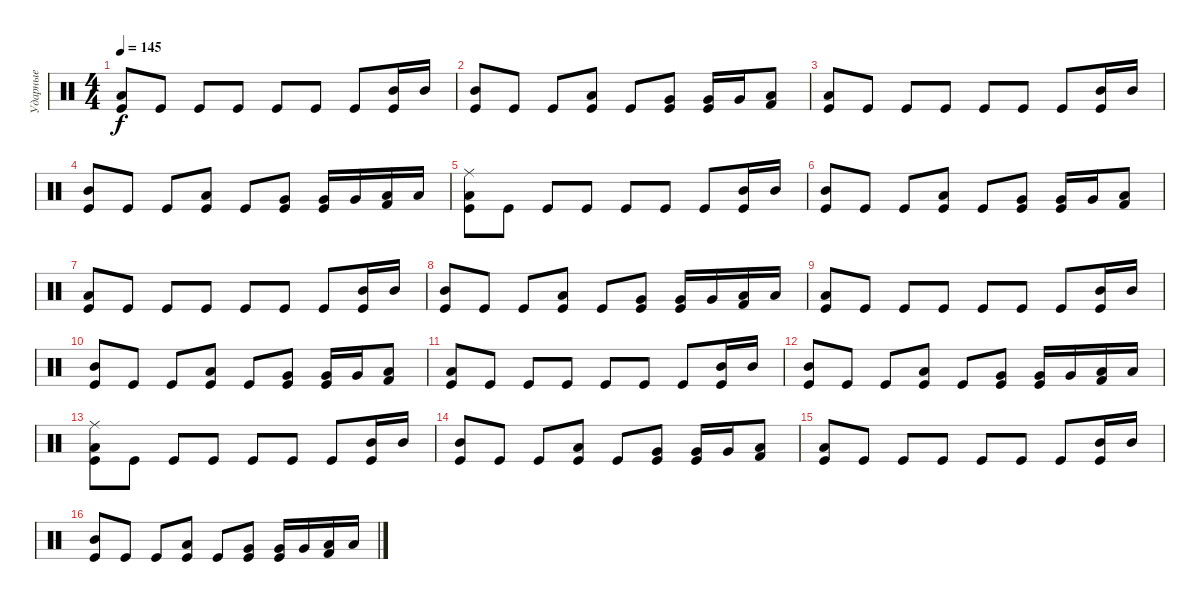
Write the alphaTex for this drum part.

\track ("Ударные" "Ударные") {instrument percussion}
\staff {score}
\articulation defaults
\ts (4 4)
\tempo 145
\clef neutral
\ks c
("Low Floor Tom (hit)" "Kick (hit)").8{dy f} "Kick (hit)".8 "Kick (hit)".8 "Kick (hit)".8 "Kick (hit)".8 "Kick (hit)".8 "Kick (hit)".8 ("Mid Tom (hit)" "Kick (hit)").16 "Mid Tom (hit)".16 |
("Mid Tom (hit)" "Kick (hit)").8 "Kick (hit)".8 "Kick (hit)".8 ("Low Tom (hit)" "Kick (hit)").8 "Kick (hit)".8 ("Very Low Tom (hit)" "Kick (hit)").8 ("Very Low Tom (hit)" "Kick (hit)").16 "Very Low Tom (hit)".16 ("Low Floor Tom (hit)" "Kick (hit) 2").8 |
("Low Floor Tom (hit)" "Kick (hit)").8 "Kick (hit)".8 "Kick (hit)".8 "Kick (hit)".8 "Kick (hit)".8 "Kick (hit)".8 "Kick (hit)".8 ("Mid Tom (hit)" "Kick (hit)").16 "Mid Tom (hit)".16 |
("Mid Tom (hit)" "Kick (hit)").8 "Kick (hit)".8 "Kick (hit)".8 ("Low Tom (hit)" "Kick (hit)").8 "Kick (hit)".8 ("Very Low Tom (hit)" "Kick (hit)").8 ("Very Low Tom (hit)" "Kick (hit)").16 "Very Low Tom (hit)".16 ("Low Floor Tom (hit)" "Kick (hit) 2").16 "Low Floor Tom (hit)".16 |
("Ride (middle)" "Kick (hit)" "Low Floor Tom (hit)").8 "Kick (hit)".8 "Kick (hit)".8 "Kick (hit)".8 "Kick (hit)".8 "Kick (hit)".8 "Kick (hit)".8 ("Mid Tom (hit)" "Kick (hit)").16 "Mid Tom (hit)".16 |
("Mid Tom (hit)" "Kick (hit)").8 "Kick (hit)".8 "Kick (hit)".8 ("Low Tom (hit)" "Kick (hit)").8 "Kick (hit)".8 ("Very Low Tom (hit)" "Kick (hit)").8 ("Very Low Tom (hit)" "Kick (hit)").16 "Very Low Tom (hit)".16 ("Low Floor Tom (hit)" "Kick (hit) 2").8 |
("Kick (hit)" "Low Floor Tom (hit)").8 "Kick (hit)".8 "Kick (hit)".8 "Kick (hit)".8 "Kick (hit)".8 "Kick (hit)".8 "Kick (hit)".8 ("Mid Tom (hit)" "Kick (hit)").16 "Mid Tom (hit)".16 |
("Mid Tom (hit)" "Kick (hit)").8 "Kick (hit)".8 "Kick (hit)".8 ("Low Tom (hit)" "Kick (hit)").8 "Kick (hit)".8 ("Very Low Tom (hit)" "Kick (hit)").8 ("Very Low Tom (hit)" "Kick (hit)").16 "Very Low Tom (hit)".16 ("Low Floor Tom (hit)" "Kick (hit) 2").16 "Low Floor Tom (hit)".16 |
("Low Floor Tom (hit)" "Kick (hit)").8 "Kick (hit)".8 "Kick (hit)".8 "Kick (hit)".8 "Kick (hit)".8 "Kick (hit)".8 "Kick (hit)".8 ("Mid Tom (hit)" "Kick (hit)").16 "Mid Tom (hit)".16 |
("Mid Tom (hit)" "Kick (hit)").8 "Kick (hit)".8 "Kick (hit)".8 ("Low Tom (hit)" "Kick (hit)").8 "Kick (hit)".8 ("Very Low Tom (hit)" "Kick (hit)").8 ("Very Low Tom (hit)" "Kick (hit)").16 "Very Low Tom (hit)".16 ("Low Floor Tom (hit)" "Kick (hit) 2").8 |
("Low Floor Tom (hit)" "Kick (hit)").8 "Kick (hit)".8 "Kick (hit)".8 "Kick (hit)".8 "Kick (hit)".8 "Kick (hit)".8 "Kick (hit)".8 ("Mid Tom (hit)" "Kick (hit)").16 "Mid Tom (hit)".16 |
("Mid Tom (hit)" "Kick (hit)").8 "Kick (hit)".8 "Kick (hit)".8 ("Low Tom (hit)" "Kick (hit)").8 "Kick (hit)".8 ("Very Low Tom (hit)" "Kick (hit)").8 ("Very Low Tom (hit)" "Kick (hit)").16 "Very Low Tom (hit)".16 ("Low Floor Tom (hit)" "Kick (hit) 2").16 "Low Floor Tom (hit)".16 |
("Ride (middle)" "Kick (hit)" "Low Floor Tom (hit)").8 "Kick (hit)".8 "Kick (hit)".8 "Kick (hit)".8 "Kick (hit)".8 "Kick (hit)".8 "Kick (hit)".8 ("Mid Tom (hit)" "Kick (hit)").16 "Mid Tom (hit)".16 |
("Mid Tom (hit)" "Kick (hit)").8 "Kick (hit)".8 "Kick (hit)".8 ("Low Tom (hit)" "Kick (hit)").8 "Kick (hit)".8 ("Very Low Tom (hit)" "Kick (hit)").8 ("Very Low Tom (hit)" "Kick (hit)").16 "Very Low Tom (hit)".16 ("Low Floor Tom (hit)" "Kick (hit) 2").8 |
("Kick (hit)" "Low Floor Tom (hit)").8 "Kick (hit)".8 "Kick (hit)".8 "Kick (hit)".8 "Kick (hit)".8 "Kick (hit)".8 "Kick (hit)".8 ("Mid Tom (hit)" "Kick (hit)").16 "Mid Tom (hit)".16 |
("Mid Tom (hit)" "Kick (hit)").8 "Kick (hit)".8 "Kick (hit)".8 ("Low Tom (hit)" "Kick (hit)").8 "Kick (hit)".8 ("Very Low Tom (hit)" "Kick (hit)").8 ("Very Low Tom (hit)" "Kick (hit)").16 "Very Low Tom (hit)".16 ("Low Floor Tom (hit)" "Kick (hit) 2").16 "Low Floor Tom (hit)".16
